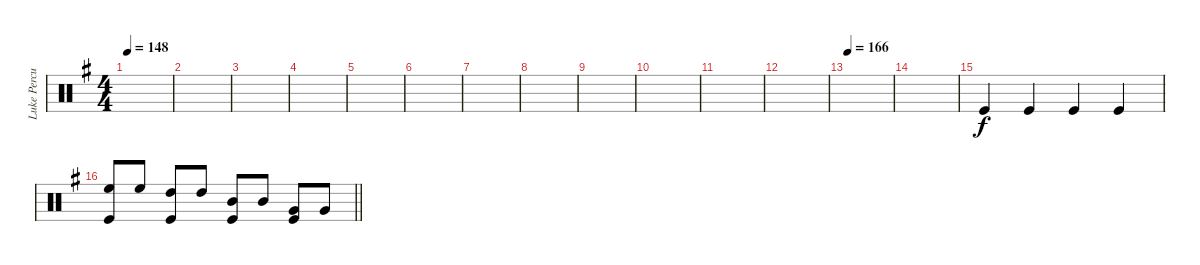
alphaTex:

\track ("Luke Percussion" "Luke Percu") {instrument percussion}
\staff {score}
\articulation defaults
\ts (4 4)
\tempo 148
\clef neutral
\ks eminor
|
|
|
|
|
|
|
|
|
|
|
|
\tempo 166
|
|
"Kick (hit)".4 "Kick (hit)".4 "Kick (hit)".4 "Kick (hit)".4 |
\barLineRight lightlight
("High Floor Tom (hit)" "Kick (hit)").8 "High Floor Tom (hit)".8 ("High Tom (hit)" "Kick (hit)").8 "High Tom (hit)".8 ("Mid Tom (hit)" "Kick (hit)").8 "Mid Tom (hit)".8 ("Very Low Tom (hit)" "Kick (hit)").8 "Very Low Tom (hit)".8
